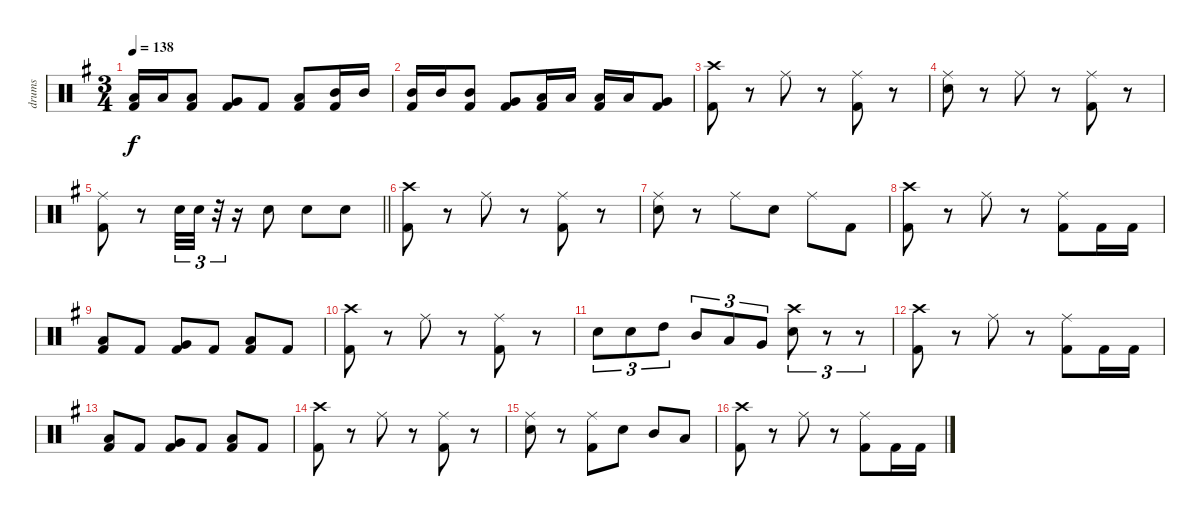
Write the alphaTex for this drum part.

\track ("drums" "drums") {instrument percussion}
\staff {score}
\articulation defaults
\ts (3 4)
\tempo 138
\clef neutral
\ks eminor
("Low Tom (hit)" "Kick (hit) 2").16{dy f} "Low Tom (hit)".16 ("Low Tom (hit)" "Kick (hit) 2").8 ("Very Low Tom (hit)" "Kick (hit) 2").8 "Kick (hit) 2".8 ("Low Tom (hit)" "Kick (hit) 2").8 ("Mid Tom (hit)" "Kick (hit) 2").16 "Mid Tom (hit)".16 |
("Mid Tom (hit)" "Kick (hit) 2").16 "Mid Tom (hit)".16 ("Mid Tom (hit)" "Kick (hit) 2").8 ("Very Low Tom (hit)" "Kick (hit) 2").8 ("Low Tom (hit)" "Kick (hit) 2").16 "Low Tom (hit)".16 ("Low Tom (hit)" "Kick (hit) 2").16 "Low Tom (hit)".16 ("Very Low Tom (hit)" "Kick (hit) 2").8 |
("Crash high (hit)" "Kick (hit) 2").8 r.8 "Ride (middle)".8 r.8 ("Ride (middle)" "Kick (hit) 2").8 r.8 |
("Ride (middle)" "Snare (hit) 2").8 r.8 "Ride (middle)".8 r.8 ("Ride (middle)" "Kick (hit) 2").8 r.8 |
\barLineRight lightlight
("Ride (middle)" "Kick (hit) 2").8 r.8 "Snare (hit) 2".32{tu (3 2)} "Snare (hit) 2".32{tu (3 2)} r.32{tu (3 2)} r.16 "Snare (hit) 2".8 "Snare (hit) 2".8 "Snare (hit) 2".8 |
("Crash high (hit)" "Kick (hit) 2").8 r.8 "Ride (middle)".8 r.8 ("Ride (middle)" "Kick (hit) 2").8 r.8 |
("Ride (middle)" "Snare (hit) 2").8 r.8 "Ride (middle)".8 "Snare (hit) 2".8 "Ride (middle)".8 "Kick (hit) 2".8 |
("Crash high (hit)" "Kick (hit) 2").8 r.8 "Ride (middle)".8 r.8 ("Ride (middle)" "Kick (hit) 2").8 "Kick (hit) 2".16 "Kick (hit) 2".16 |
("Low Tom (hit)" "Kick (hit) 2").8 "Kick (hit) 2".8 ("Very Low Tom (hit)" "Kick (hit) 2").8 "Kick (hit) 2".8 ("Low Tom (hit)" "Kick (hit) 2").8 "Kick (hit) 2".8 |
("Crash high (hit)" "Kick (hit) 2").8 r.8 "Ride (middle)".8 r.8 ("Ride (middle)" "Kick (hit) 2").8 r.8 |
"Snare (hit) 2".8{tu (3 2)} "Snare (hit) 2".8{tu (3 2)} "High Tom (hit)".8{tu (3 2)} "Mid Tom (hit)".8{tu (3 2)} "Low Tom (hit)".8{tu (3 2)} "Very Low Tom (hit)".8{tu (3 2)} ("Crash high (hit)" "Snare (hit) 2").8{tu (3 2)} r.8{tu (3 2)} r.8{tu (3 2)} |
("Crash high (hit)" "Kick (hit) 2").8 r.8 "Ride (middle)".8 r.8 ("Ride (middle)" "Kick (hit) 2").8 "Kick (hit) 2".16 "Kick (hit) 2".16 |
("Low Tom (hit)" "Kick (hit) 2").8 "Kick (hit) 2".8 ("Very Low Tom (hit)" "Kick (hit) 2").8 "Kick (hit) 2".8 ("Low Tom (hit)" "Kick (hit) 2").8 "Kick (hit) 2".8 |
("Crash high (hit)" "Kick (hit) 2").8 r.8 "Ride (middle)".8 r.8 ("Ride (middle)" "Kick (hit) 2").8 r.8 |
("Ride (middle)" "Snare (hit) 2").8 r.8 ("Ride (middle)" "Kick (hit) 2").8 "Snare (hit) 2".8 "Mid Tom (hit)".8 "Low Tom (hit)".8 |
("Crash high (hit)" "Kick (hit) 2").8 r.8 "Ride (middle)".8 r.8 ("Ride (middle)" "Kick (hit) 2").8 "Kick (hit) 2".16 "Kick (hit) 2".16
